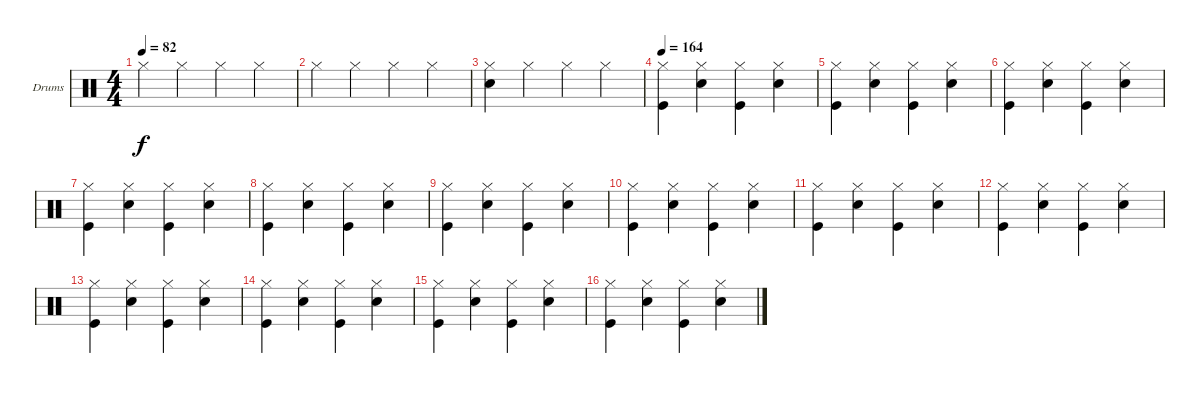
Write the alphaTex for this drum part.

\bracketExtendMode groupsimilarinstruments
\firstSystemTrackNameOrientation horizontal
\otherSystemsTrackNameOrientation horizontal
\track ("Matt Sorum - Drums" "Drums") {instrument percussion}
\staff {score}
\articulation defaults
\ts (4 4)
\tempo 82
\clef neutral
\ks aminor "Hi-Hat (closed)".4{dy f} "Hi-Hat (closed)".4 "Hi-Hat (closed)".4 "Hi-Hat (closed)".4
|
"Hi-Hat (closed)".4 "Hi-Hat (closed)".4 "Hi-Hat (closed)".4 "Hi-Hat (closed)".4 |
("Snare (hit) 2" "Hi-Hat (closed)").4 "Hi-Hat (closed)".4 "Hi-Hat (closed)".4 "Hi-Hat (closed)".4 |
\tempo 164
("Hi-Hat (closed)" "Kick (hit)").4 ("Hi-Hat (closed)" "Snare (hit) 2").4 ("Hi-Hat (closed)" "Kick (hit)").4 ("Hi-Hat (closed)" "Snare (hit) 2").4 |
("Hi-Hat (closed)" "Kick (hit)").4 ("Hi-Hat (closed)" "Snare (hit) 2").4 ("Hi-Hat (closed)" "Kick (hit)").4 ("Hi-Hat (closed)" "Snare (hit) 2").4 |
("Hi-Hat (closed)" "Kick (hit)").4 ("Hi-Hat (closed)" "Snare (hit) 2").4 ("Hi-Hat (closed)" "Kick (hit)").4 ("Hi-Hat (closed)" "Snare (hit) 2").4 |
("Hi-Hat (closed)" "Kick (hit)").4 ("Hi-Hat (closed)" "Snare (hit) 2").4 ("Hi-Hat (closed)" "Kick (hit)").4 ("Hi-Hat (closed)" "Snare (hit) 2").4 |
("Hi-Hat (closed)" "Kick (hit)").4 ("Hi-Hat (closed)" "Snare (hit) 2").4 ("Hi-Hat (closed)" "Kick (hit)").4 ("Hi-Hat (closed)" "Snare (hit) 2").4 |
("Hi-Hat (closed)" "Kick (hit)").4 ("Hi-Hat (closed)" "Snare (hit) 2").4 ("Hi-Hat (closed)" "Kick (hit)").4 ("Hi-Hat (closed)" "Snare (hit) 2").4 |
("Hi-Hat (closed)" "Kick (hit)").4 ("Hi-Hat (closed)" "Snare (hit) 2").4 ("Hi-Hat (closed)" "Kick (hit)").4 ("Hi-Hat (closed)" "Snare (hit) 2").4 |
("Hi-Hat (closed)" "Kick (hit)").4 ("Hi-Hat (closed)" "Snare (hit) 2").4 ("Hi-Hat (closed)" "Kick (hit)").4 ("Hi-Hat (closed)" "Snare (hit) 2").4 |
("Hi-Hat (closed)" "Kick (hit)").4 ("Hi-Hat (closed)" "Snare (hit) 2").4 ("Hi-Hat (closed)" "Kick (hit)").4 ("Hi-Hat (closed)" "Snare (hit) 2").4 |
("Hi-Hat (closed)" "Kick (hit)").4 ("Hi-Hat (closed)" "Snare (hit) 2").4 ("Hi-Hat (closed)" "Kick (hit)").4 ("Hi-Hat (closed)" "Snare (hit) 2").4 |
("Hi-Hat (closed)" "Kick (hit)").4 ("Hi-Hat (closed)" "Snare (hit) 2").4 ("Hi-Hat (closed)" "Kick (hit)").4 ("Hi-Hat (closed)" "Snare (hit) 2").4 |
("Hi-Hat (closed)" "Kick (hit)").4 ("Hi-Hat (closed)" "Snare (hit) 2").4 ("Hi-Hat (closed)" "Kick (hit)").4 ("Hi-Hat (closed)" "Snare (hit) 2").4 |
("Hi-Hat (closed)" "Kick (hit)").4 ("Hi-Hat (closed)" "Snare (hit) 2").4 ("Hi-Hat (closed)" "Kick (hit)").4 ("Hi-Hat (closed)" "Snare (hit) 2").4
